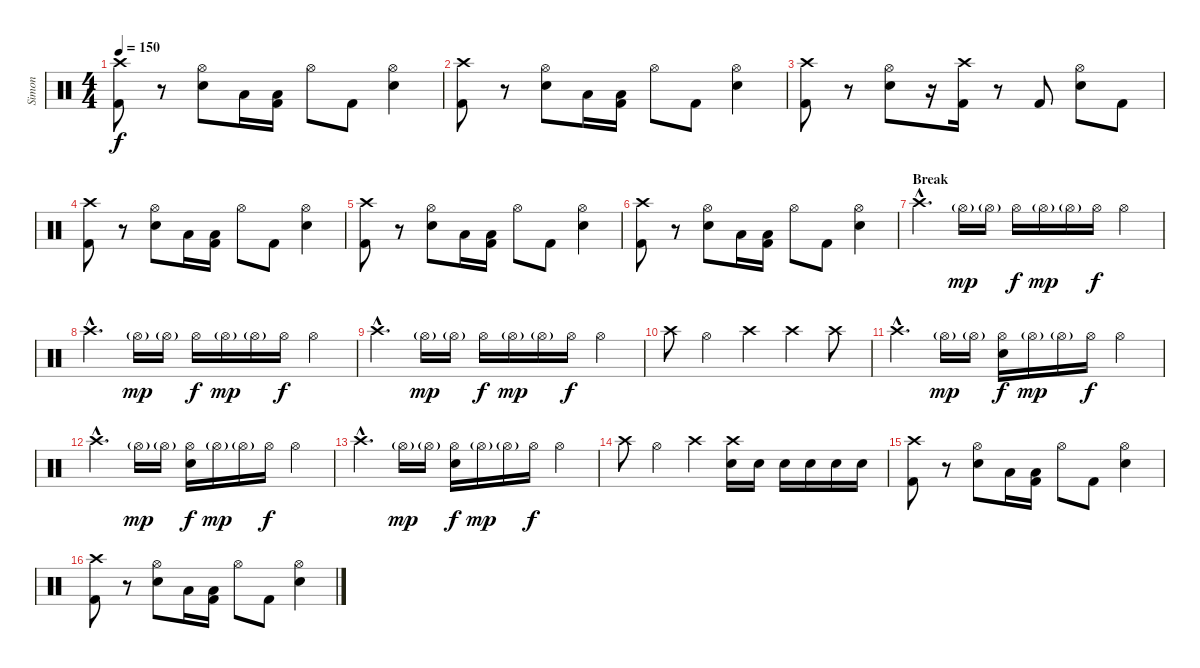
\track ("Simon" "Simon") {instrument percussion}
\staff {score}
\articulation defaults
\ts (4 4)
\tempo 150
\clef neutral
\ks c
("Crash high (hit)" "Kick (hit) 2").8{dy f} r.8 ("Hi-Hat (open)" "Electric Snare (hit)").8 "Low Tom (hit)".16 ("Kick (hit) 2" "Low Tom (hit)").16 "Hi-Hat (open)".8 "Kick (hit) 2".8 ("Hi-Hat (open)" "Electric Snare (hit)").4 |
("Crash high (hit)" "Kick (hit) 2").8 r.8 ("Hi-Hat (open)" "Electric Snare (hit)").8 "Low Tom (hit)".16 ("Kick (hit) 2" "Low Tom (hit)").16 "Hi-Hat (open)".8 "Kick (hit) 2".8 ("Hi-Hat (open)" "Electric Snare (hit)").4 |
("Crash high (hit)" "Kick (hit) 2").8 r.8 ("Hi-Hat (open)" "Electric Snare (hit)").8 r.16 ("Crash high (hit)" "Kick (hit) 2").16 r.8 "Kick (hit) 2".8 ("Hi-Hat (open)" "Electric Snare (hit)").8 "Kick (hit) 2".8 |
("Crash high (hit)" "Kick (hit) 2").8 r.8 ("Hi-Hat (open)" "Electric Snare (hit)").8 "Low Tom (hit)".16 ("Kick (hit) 2" "Low Tom (hit)").16 "Hi-Hat (open)".8 "Kick (hit) 2".8 ("Hi-Hat (open)" "Electric Snare (hit)").4 |
("Crash high (hit)" "Kick (hit) 2").8 r.8 ("Hi-Hat (open)" "Electric Snare (hit)").8 "Low Tom (hit)".16 ("Kick (hit) 2" "Low Tom (hit)").16 "Hi-Hat (open)".8 "Kick (hit) 2".8 ("Hi-Hat (open)" "Electric Snare (hit)").4 |
("Crash high (hit)" "Kick (hit) 2").8 r.8 ("Hi-Hat (open)" "Electric Snare (hit)").8 "Low Tom (hit)".16 ("Kick (hit) 2" "Low Tom (hit)").16 "Hi-Hat (open)".8 "Kick (hit) 2".8 ("Hi-Hat (open)" "Electric Snare (hit)").4 |
\section ("" "Break")
"Crash high (hit)"{hac}.4{d} "Hi-Hat (open)"{g}.16{dy mp} "Hi-Hat (open)"{g}.16 "Hi-Hat (open)".16{dy f} "Hi-Hat (open)"{g}.16{dy mp} "Hi-Hat (open)"{g}.16 "Hi-Hat (open)".16{dy f} "Hi-Hat (open)".4 |
"Crash high (hit)"{hac}.4{d} "Hi-Hat (open)"{g}.16{dy mp} "Hi-Hat (open)"{g}.16 "Hi-Hat (open)".16{dy f} "Hi-Hat (open)"{g}.16{dy mp} "Hi-Hat (open)"{g}.16 "Hi-Hat (open)".16{dy f} "Hi-Hat (open)".4 |
"Crash high (hit)"{hac}.4{d} "Hi-Hat (open)"{g}.16{dy mp} "Hi-Hat (open)"{g}.16 "Hi-Hat (open)".16{dy f} "Hi-Hat (open)"{g}.16{dy mp} "Hi-Hat (open)"{g}.16 "Hi-Hat (open)".16{dy f} "Hi-Hat (open)".4 |
"Crash high (hit)".8 "Hi-Hat (open)".4 "Crash high (hit)".4 "Crash high (hit)".4 "Crash high (hit)".8 |
"Crash high (hit)"{hac}.4{d} "Hi-Hat (open)"{g}.16{dy mp} "Hi-Hat (open)"{g}.16 ("Hi-Hat (open)" "Electric Snare (hit)").16{dy f} "Hi-Hat (open)"{g}.16{dy mp} "Hi-Hat (open)"{g}.16 "Hi-Hat (open)".16{dy f} "Hi-Hat (open)".4 |
"Crash high (hit)"{hac}.4{d} "Hi-Hat (open)"{g}.16{dy mp} "Hi-Hat (open)"{g}.16 ("Hi-Hat (open)" "Electric Snare (hit)").16{dy f} "Hi-Hat (open)"{g}.16{dy mp} "Hi-Hat (open)"{g}.16 "Hi-Hat (open)".16{dy f} "Hi-Hat (open)".4 |
"Crash high (hit)"{hac}.4{d} "Hi-Hat (open)"{g}.16{dy mp} "Hi-Hat (open)"{g}.16 ("Hi-Hat (open)" "Electric Snare (hit)").16{dy f} "Hi-Hat (open)"{g}.16{dy mp} "Hi-Hat (open)"{g}.16 "Hi-Hat (open)".16{dy f} "Hi-Hat (open)".4 |
"Crash high (hit)".8 "Hi-Hat (open)".4 "Crash high (hit)".4 ("Crash high (hit)" "Electric Snare (hit)").16 "Electric Snare (hit)".16 "Electric Snare (hit)".16 "Electric Snare (hit)".16 "Electric Snare (hit)".16 "Electric Snare (hit)".16 |
("Crash high (hit)" "Kick (hit) 2").8 r.8 ("Hi-Hat (open)" "Electric Snare (hit)").8 "Low Tom (hit)".16 ("Kick (hit) 2" "Low Tom (hit)").16 "Hi-Hat (open)".8 "Kick (hit) 2".8 ("Hi-Hat (open)" "Electric Snare (hit)").4 |
("Crash high (hit)" "Kick (hit) 2").8 r.8 ("Hi-Hat (open)" "Electric Snare (hit)").8 "Low Tom (hit)".16 ("Kick (hit) 2" "Low Tom (hit)").16 "Hi-Hat (open)".8 "Kick (hit) 2".8 ("Hi-Hat (open)" "Electric Snare (hit)").4
